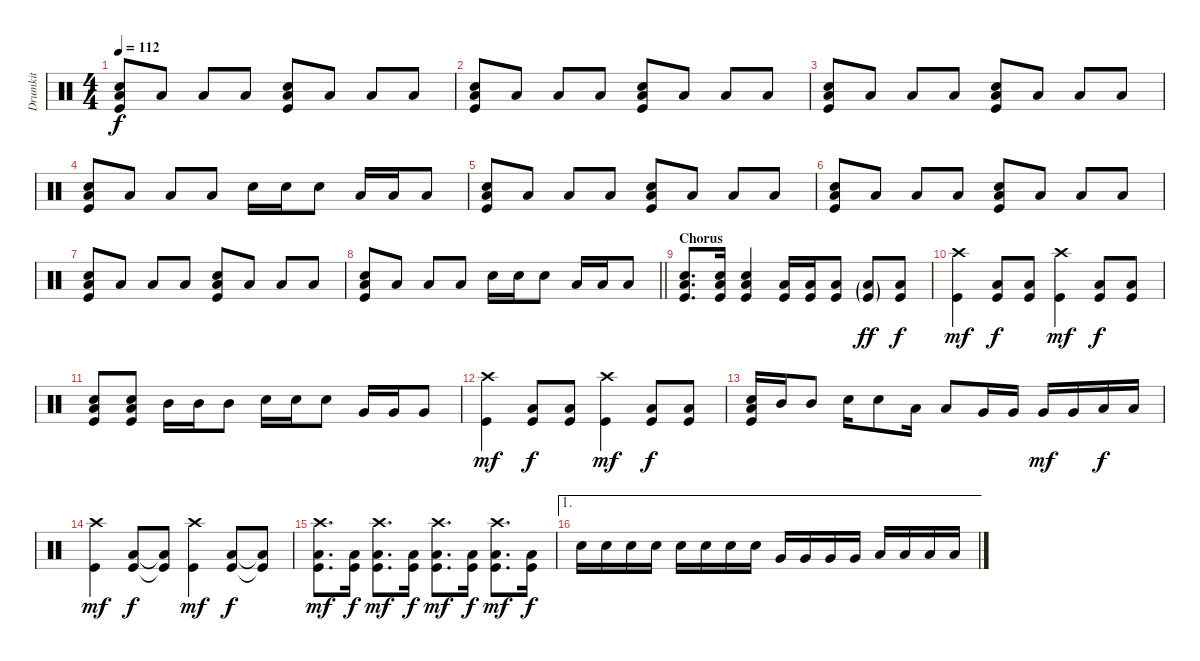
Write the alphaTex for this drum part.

\track ("Drumkit" "Drumkit") {instrument percussion}
\staff {score}
\articulation defaults
\ts (4 4)
\tempo 112
\clef neutral
\ks c
("Snare (hit) 2" "Low Floor Tom (hit)" "Kick (hit)").8{dy f} "Low Floor Tom (hit)".8 "Low Floor Tom (hit)".8 "Low Floor Tom (hit)".8 ("Snare (hit) 2" "Low Floor Tom (hit)" "Kick (hit)").8 "Low Floor Tom (hit)".8 "Low Floor Tom (hit)".8 "Low Floor Tom (hit)".8 |
("Snare (hit) 2" "Low Floor Tom (hit)" "Kick (hit)").8 "Low Floor Tom (hit)".8 "Low Floor Tom (hit)".8 "Low Floor Tom (hit)".8 ("Snare (hit) 2" "Low Floor Tom (hit)" "Kick (hit)").8 "Low Floor Tom (hit)".8 "Low Floor Tom (hit)".8 "Low Floor Tom (hit)".8 |
("Snare (hit) 2" "Low Floor Tom (hit)" "Kick (hit)").8 "Low Floor Tom (hit)".8 "Low Floor Tom (hit)".8 "Low Floor Tom (hit)".8 ("Snare (hit) 2" "Low Floor Tom (hit)" "Kick (hit)").8 "Low Floor Tom (hit)".8 "Low Floor Tom (hit)".8 "Low Floor Tom (hit)".8 |
("Snare (hit) 2" "Low Floor Tom (hit)" "Kick (hit)").8 "Low Floor Tom (hit)".8 "Low Floor Tom (hit)".8 "Low Floor Tom (hit)".8 "Snare (hit) 2".16 "Snare (hit) 2".16 "Snare (hit) 2".8 "Low Tom (hit)".16 "Low Tom (hit)".16 "Low Tom (hit)".8 |
("Snare (hit) 2" "Low Floor Tom (hit)" "Kick (hit)").8 "Low Floor Tom (hit)".8 "Low Floor Tom (hit)".8 "Low Floor Tom (hit)".8 ("Snare (hit) 2" "Low Floor Tom (hit)" "Kick (hit)").8 "Low Floor Tom (hit)".8 "Low Floor Tom (hit)".8 "Low Floor Tom (hit)".8 |
("Snare (hit) 2" "Low Floor Tom (hit)" "Kick (hit)").8 "Low Floor Tom (hit)".8 "Low Floor Tom (hit)".8 "Low Floor Tom (hit)".8 ("Snare (hit) 2" "Low Floor Tom (hit)" "Kick (hit)").8 "Low Floor Tom (hit)".8 "Low Floor Tom (hit)".8 "Low Floor Tom (hit)".8 |
("Snare (hit) 2" "Low Floor Tom (hit)" "Kick (hit)").8 "Low Floor Tom (hit)".8 "Low Floor Tom (hit)".8 "Low Floor Tom (hit)".8 ("Snare (hit) 2" "Low Floor Tom (hit)" "Kick (hit)").8 "Low Floor Tom (hit)".8 "Low Floor Tom (hit)".8 "Low Floor Tom (hit)".8 |
\barLineRight lightlight
("Snare (hit) 2" "Low Floor Tom (hit)" "Kick (hit)").8 "Low Floor Tom (hit)".8 "Low Floor Tom (hit)".8 "Low Floor Tom (hit)".8 "Snare (hit) 2".16 "Snare (hit) 2".16 "Snare (hit) 2".8 "Low Tom (hit)".16 "Low Tom (hit)".16 "Low Tom (hit)".8 |
\section ("" "Chorus")
("Snare (hit) 2" "Low Floor Tom (hit)" "Kick (hit)").8{d} ("Snare (hit) 2" "Low Floor Tom (hit)" "Kick (hit)").16 ("Snare (hit) 2" "Low Floor Tom (hit)" "Kick (hit)").4 ("Low Floor Tom (hit)" "Kick (hit)").16 ("Low Floor Tom (hit)" "Kick (hit)").16 ("Low Floor Tom (hit)" "Kick (hit)").8 ("Low Floor Tom (hit)"{g} "Kick (hit)"{g}).8{dy ff} ("Low Floor Tom (hit)" "Kick (hit)").8{dy f} |
("Crash high (hit)" "Kick (hit)").4{dy mf} ("Low Floor Tom (hit)" "Kick (hit)").8{dy f} ("Low Floor Tom (hit)" "Kick (hit)").8 ("Crash high (hit)" "Kick (hit)").4{dy mf} ("Low Floor Tom (hit)" "Kick (hit)").8{dy f} ("Low Floor Tom (hit)" "Kick (hit)").8 |
("Low Floor Tom (hit)" "Snare (hit) 2" "Kick (hit)").8 ("Low Floor Tom (hit)" "Snare (hit) 2" "Kick (hit)").8 "Mid Tom (hit)".16 "Mid Tom (hit)".16 "Mid Tom (hit)".8 "Snare (hit) 2".16 "Snare (hit) 2".16 "Snare (hit) 2".8 "Very Low Tom (hit)".16 "Very Low Tom (hit)".16 "Very Low Tom (hit)".8 |
("Crash high (hit)" "Kick (hit)").4{dy mf} ("Low Floor Tom (hit)" "Kick (hit)").8{dy f} ("Low Floor Tom (hit)" "Kick (hit)").8 ("Crash high (hit)" "Kick (hit)").4{dy mf} ("Low Floor Tom (hit)" "Kick (hit)").8{dy f} ("Low Floor Tom (hit)" "Kick (hit)").8 |
("Snare (hit) 2" "Low Floor Tom (hit)" "Kick (hit)").16 "Mid Tom (hit)".16 "Mid Tom (hit)".8 "Snare (hit) 2".16 "Snare (hit) 2".8 "Low Tom (hit)".16 "Low Tom (hit)".8 "Very Low Tom (hit)".16 "Very Low Tom (hit)".16 "Very Low Tom (hit)".16{dy mf} "Very Low Tom (hit)".16 "Low Floor Tom (hit)".16{dy f} "Low Floor Tom (hit)".16 |
("Crash high (hit)" "Kick (hit)").4{dy mf} ("Low Floor Tom (hit)" "Kick (hit)").8{dy f} ("Low Floor Tom (hit)"{t} "Kick (hit)"{t}).8 ("Crash high (hit)" "Kick (hit)").4{dy mf} ("Low Floor Tom (hit)" "Kick (hit)").8{dy f} ("Low Floor Tom (hit)"{t} "Kick (hit)"{t}).8 |
("Crash high (hit)" "Low Floor Tom (hit)" "Kick (hit)").8{d dy mf} ("Low Floor Tom (hit)" "Kick (hit)").16{dy f} ("Crash high (hit)" "Low Floor Tom (hit)" "Kick (hit)").8{d dy mf} ("Low Floor Tom (hit)" "Kick (hit)").16{dy f} ("Crash high (hit)" "Low Floor Tom (hit)" "Kick (hit)").8{d dy mf} ("Low Floor Tom (hit)" "Kick (hit)").16{dy f} ("Crash high (hit)" "Low Floor Tom (hit)" "Kick (hit)").8{d dy mf} ("Low Floor Tom (hit)" "Kick (hit)").16{dy f} |
\ae 1 "Snare (hit) 2".16 "Snare (hit) 2".16 "Snare (hit) 2".16 "Snare (hit) 2".16 "Snare (hit) 2".16 "Snare (hit) 2".16 "Snare (hit) 2".16 "Snare (hit) 2".16 "Very Low Tom (hit)".16 "Very Low Tom (hit)".16 "Very Low Tom (hit)".16 "Very Low Tom (hit)".16 "Low Floor Tom (hit)".16 "Low Floor Tom (hit)".16 "Low Floor Tom (hit)".16 "Low Floor Tom (hit)".16
